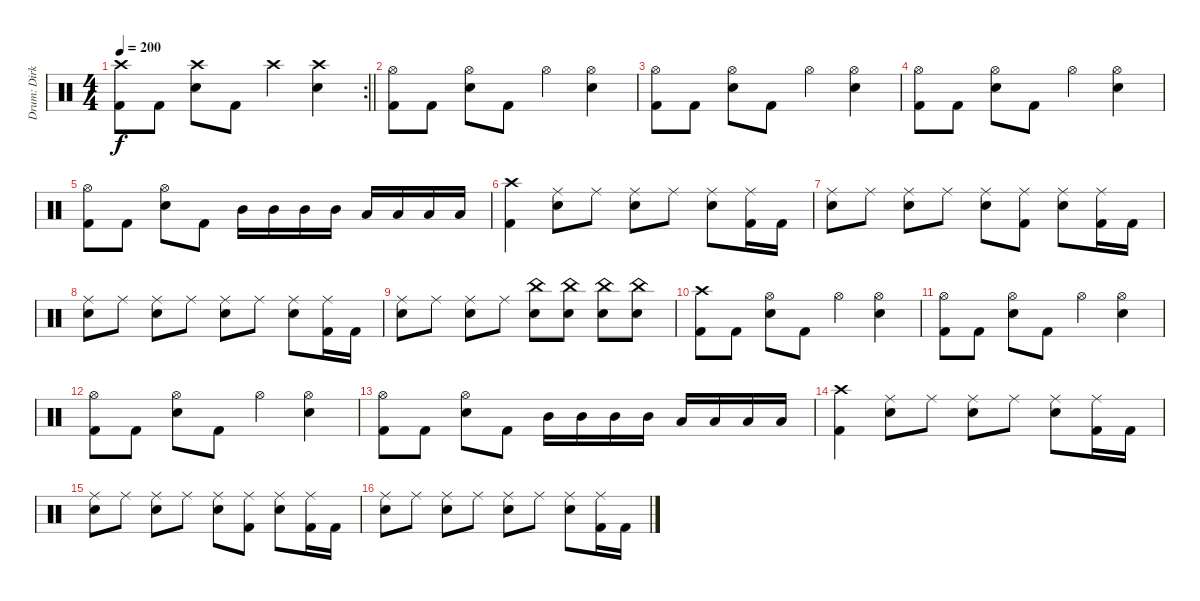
\track ("Drum: Dirk" "Drum: Dirk") {instrument percussion}
\staff {score}
\articulation defaults
\rc 2
\ts (4 4)
\tempo 200
\clef neutral
\barLineRight lightlight
\ks c
("Crash high (hit)" "Kick (hit) 2").8{dy f} "Kick (hit) 2".8 ("Crash high (hit)" "Electric Snare (hit)").8 "Kick (hit) 2".8 "Crash high (hit)".4 ("Crash high (hit)" "Electric Snare (hit)").4 |
\section ("" "")
("Hi-Hat (open)" "Kick (hit) 2").8 "Kick (hit) 2".8 ("Hi-Hat (open)" "Electric Snare (hit)").8 "Kick (hit) 2".8 "Hi-Hat (open)".4 ("Hi-Hat (open)" "Electric Snare (hit)").4 |
("Hi-Hat (open)" "Kick (hit) 2").8 "Kick (hit) 2".8 ("Hi-Hat (open)" "Electric Snare (hit)").8 "Kick (hit) 2".8 "Hi-Hat (open)".4 ("Hi-Hat (open)" "Electric Snare (hit)").4 |
("Hi-Hat (open)" "Kick (hit) 2").8 "Kick (hit) 2".8 ("Hi-Hat (open)" "Electric Snare (hit)").8 "Kick (hit) 2".8 "Hi-Hat (open)".4 ("Hi-Hat (open)" "Electric Snare (hit)").4 |
("Hi-Hat (open)" "Kick (hit) 2").8 "Kick (hit) 2".8 ("Hi-Hat (open)" "Electric Snare (hit)").8 "Kick (hit) 2".8 "Mid Tom (hit)".16 "Mid Tom (hit)".16 "Mid Tom (hit)".16 "Mid Tom (hit)".16 "Low Tom (hit)".16 "Low Tom (hit)".16 "Low Tom (hit)".16 "Low Tom (hit)".16 |
("Crash high (hit)" "Kick (hit) 2").4 ("Ride (middle)" "Electric Snare (hit)").8 "Ride (middle)".8 ("Ride (middle)" "Electric Snare (hit)").8 "Ride (middle)".8 ("Ride (middle)" "Electric Snare (hit)").8 ("Ride (middle)" "Kick (hit) 2").16 "Kick (hit) 2".16 |
("Ride (middle)" "Electric Snare (hit)").8 "Ride (middle)".8 ("Ride (middle)" "Electric Snare (hit)").8 "Ride (middle)".8 ("Ride (middle)" "Electric Snare (hit)").8 ("Ride (middle)" "Kick (hit) 2").8 ("Ride (middle)" "Electric Snare (hit)").8 ("Ride (middle)" "Kick (hit) 2").16 "Kick (hit) 2".16 |
("Ride (middle)" "Electric Snare (hit)").8 "Ride (middle)".8 ("Ride (middle)" "Electric Snare (hit)").8 "Ride (middle)".8 ("Ride (middle)" "Electric Snare (hit)").8 "Ride (middle)".8 ("Ride (middle)" "Electric Snare (hit)").8 ("Ride (middle)" "Kick (hit) 2").16 "Kick (hit) 2".16 |
("Ride (middle)" "Electric Snare (hit)").8 "Ride (middle)".8 ("Ride (middle)" "Electric Snare (hit)").8 "Ride (middle)".8 ("China (hit)" "Electric Snare (hit)").8 ("China (hit)" "Electric Snare (hit)").8 ("China (hit)" "Electric Snare (hit)").8 ("China (hit)" "Electric Snare (hit)").8 |
("Crash high (hit)" "Kick (hit) 2").8 "Kick (hit) 2".8 ("Hi-Hat (open)" "Electric Snare (hit)").8 "Kick (hit) 2".8 "Hi-Hat (open)".4 ("Hi-Hat (open)" "Electric Snare (hit)").4 |
("Hi-Hat (open)" "Kick (hit) 2").8 "Kick (hit) 2".8 ("Hi-Hat (open)" "Electric Snare (hit)").8 "Kick (hit) 2".8 "Hi-Hat (open)".4 ("Hi-Hat (open)" "Electric Snare (hit)").4 |
("Hi-Hat (open)" "Kick (hit) 2").8 "Kick (hit) 2".8 ("Hi-Hat (open)" "Electric Snare (hit)").8 "Kick (hit) 2".8 "Hi-Hat (open)".4 ("Hi-Hat (open)" "Electric Snare (hit)").4 |
("Hi-Hat (open)" "Kick (hit) 2").8 "Kick (hit) 2".8 ("Hi-Hat (open)" "Electric Snare (hit)").8 "Kick (hit) 2".8 "Mid Tom (hit)".16 "Mid Tom (hit)".16 "Mid Tom (hit)".16 "Mid Tom (hit)".16 "Low Tom (hit)".16 "Low Tom (hit)".16 "Low Tom (hit)".16 "Low Tom (hit)".16 |
("Crash high (hit)" "Kick (hit) 2").4 ("Ride (middle)" "Electric Snare (hit)").8 "Ride (middle)".8 ("Ride (middle)" "Electric Snare (hit)").8 "Ride (middle)".8 ("Ride (middle)" "Electric Snare (hit)").8 ("Ride (middle)" "Kick (hit) 2").16 "Kick (hit) 2".16 |
("Ride (middle)" "Electric Snare (hit)").8 "Ride (middle)".8 ("Ride (middle)" "Electric Snare (hit)").8 "Ride (middle)".8 ("Ride (middle)" "Electric Snare (hit)").8 ("Ride (middle)" "Kick (hit) 2").8 ("Ride (middle)" "Electric Snare (hit)").8 ("Ride (middle)" "Kick (hit) 2").16 "Kick (hit) 2".16 |
("Ride (middle)" "Electric Snare (hit)").8 "Ride (middle)".8 ("Ride (middle)" "Electric Snare (hit)").8 "Ride (middle)".8 ("Ride (middle)" "Electric Snare (hit)").8 "Ride (middle)".8 ("Ride (middle)" "Electric Snare (hit)").8 ("Ride (middle)" "Kick (hit) 2").16 "Kick (hit) 2".16
